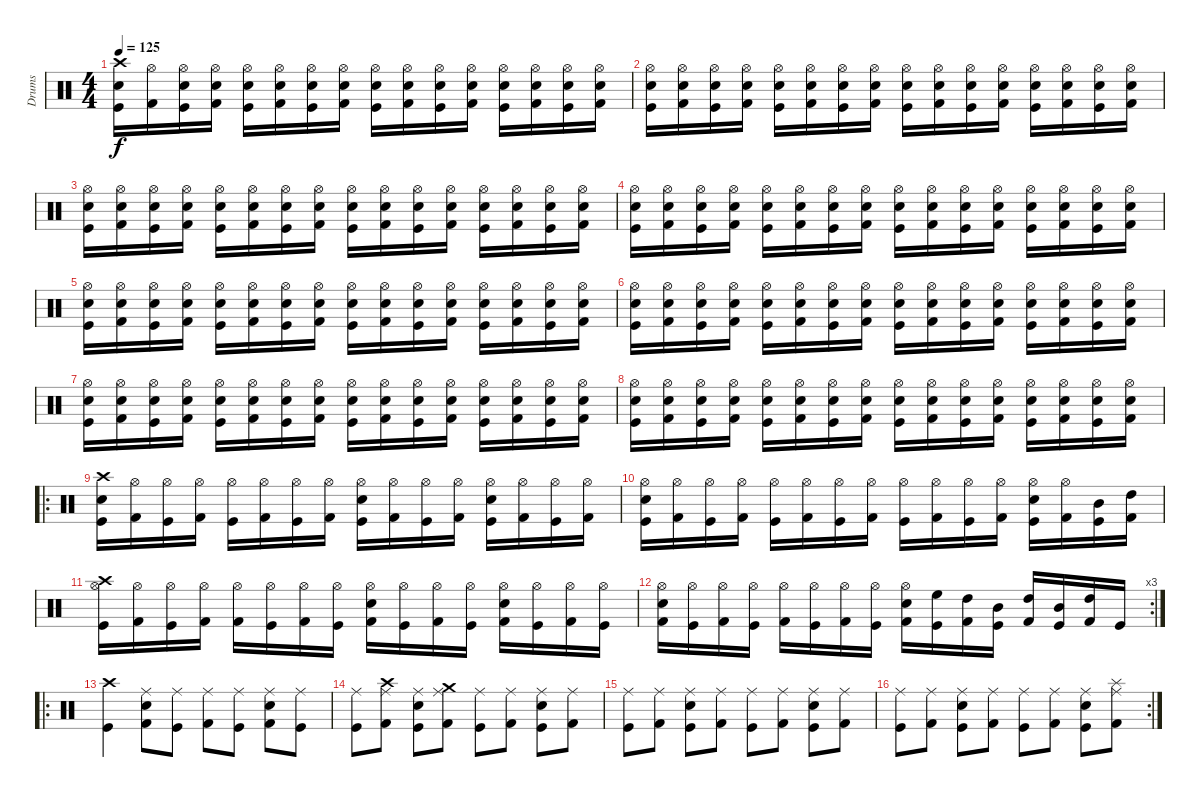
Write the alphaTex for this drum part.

\track ("Drums" "Drums") {instrument percussion}
\staff {score}
\articulation defaults
\ts (4 4)
\tempo 125
\clef neutral
\ks c
("Kick (hit)" "Crash high (hit)" "Electric Snare (hit)").16{dy f} ("Kick (hit) 2" "Hi-Hat (open)").16 ("Kick (hit)" "Hi-Hat (open)" "Electric Snare (hit)").16 ("Kick (hit) 2" "Hi-Hat (open)" "Electric Snare (hit)").16 ("Kick (hit)" "Hi-Hat (open)" "Electric Snare (hit)").16 ("Kick (hit) 2" "Hi-Hat (open)" "Electric Snare (hit)").16 ("Kick (hit)" "Hi-Hat (open)" "Electric Snare (hit)").16 ("Kick (hit) 2" "Hi-Hat (open)" "Electric Snare (hit)").16 ("Kick (hit)" "Hi-Hat (open)" "Electric Snare (hit)").16 ("Kick (hit) 2" "Hi-Hat (open)" "Electric Snare (hit)").16 ("Kick (hit)" "Hi-Hat (open)" "Electric Snare (hit)").16 ("Kick (hit) 2" "Hi-Hat (open)" "Electric Snare (hit)").16 ("Kick (hit)" "Hi-Hat (open)" "Electric Snare (hit)").16 ("Kick (hit) 2" "Hi-Hat (open)" "Electric Snare (hit)").16 ("Kick (hit)" "Hi-Hat (open)" "Electric Snare (hit)").16 ("Kick (hit) 2" "Hi-Hat (open)" "Electric Snare (hit)").16 |
("Kick (hit)" "Hi-Hat (open)" "Electric Snare (hit)").16 ("Kick (hit) 2" "Hi-Hat (open)" "Electric Snare (hit)").16 ("Kick (hit)" "Hi-Hat (open)" "Electric Snare (hit)").16 ("Kick (hit) 2" "Hi-Hat (open)" "Electric Snare (hit)").16 ("Kick (hit)" "Hi-Hat (open)" "Electric Snare (hit)").16 ("Kick (hit) 2" "Hi-Hat (open)" "Electric Snare (hit)").16 ("Kick (hit)" "Hi-Hat (open)" "Electric Snare (hit)").16 ("Kick (hit) 2" "Hi-Hat (open)" "Electric Snare (hit)").16 ("Kick (hit)" "Hi-Hat (open)" "Electric Snare (hit)").16 ("Kick (hit) 2" "Hi-Hat (open)" "Electric Snare (hit)").16 ("Kick (hit)" "Hi-Hat (open)" "Electric Snare (hit)").16 ("Kick (hit) 2" "Hi-Hat (open)" "Electric Snare (hit)").16 ("Kick (hit)" "Hi-Hat (open)" "Electric Snare (hit)").16 ("Kick (hit) 2" "Hi-Hat (open)" "Electric Snare (hit)").16 ("Kick (hit)" "Hi-Hat (open)" "Electric Snare (hit)").16 ("Kick (hit) 2" "Hi-Hat (open)" "Electric Snare (hit)").16 |
("Kick (hit)" "Hi-Hat (open)" "Electric Snare (hit)").16 ("Kick (hit) 2" "Hi-Hat (open)" "Electric Snare (hit)").16 ("Kick (hit)" "Hi-Hat (open)" "Electric Snare (hit)").16 ("Kick (hit) 2" "Hi-Hat (open)" "Electric Snare (hit)").16 ("Kick (hit)" "Hi-Hat (open)" "Electric Snare (hit)").16 ("Kick (hit) 2" "Hi-Hat (open)" "Electric Snare (hit)").16 ("Kick (hit)" "Hi-Hat (open)" "Electric Snare (hit)").16 ("Kick (hit) 2" "Hi-Hat (open)" "Electric Snare (hit)").16 ("Kick (hit)" "Hi-Hat (open)" "Electric Snare (hit)").16 ("Kick (hit) 2" "Hi-Hat (open)" "Electric Snare (hit)").16 ("Kick (hit)" "Hi-Hat (open)" "Electric Snare (hit)").16 ("Kick (hit) 2" "Hi-Hat (open)" "Electric Snare (hit)").16 ("Kick (hit)" "Hi-Hat (open)" "Electric Snare (hit)").16 ("Kick (hit) 2" "Hi-Hat (open)" "Electric Snare (hit)").16 ("Kick (hit)" "Hi-Hat (open)" "Electric Snare (hit)").16 ("Kick (hit) 2" "Hi-Hat (open)" "Electric Snare (hit)").16 |
("Kick (hit)" "Hi-Hat (open)" "Electric Snare (hit)").16 ("Kick (hit) 2" "Hi-Hat (open)" "Electric Snare (hit)").16 ("Kick (hit)" "Hi-Hat (open)" "Electric Snare (hit)").16 ("Kick (hit) 2" "Hi-Hat (open)" "Electric Snare (hit)").16 ("Kick (hit)" "Hi-Hat (open)" "Electric Snare (hit)").16 ("Kick (hit) 2" "Hi-Hat (open)" "Electric Snare (hit)").16 ("Kick (hit)" "Hi-Hat (open)" "Electric Snare (hit)").16 ("Kick (hit) 2" "Hi-Hat (open)" "Electric Snare (hit)").16 ("Kick (hit)" "Hi-Hat (open)" "Electric Snare (hit)").16 ("Kick (hit) 2" "Hi-Hat (open)" "Electric Snare (hit)").16 ("Kick (hit)" "Hi-Hat (open)" "Electric Snare (hit)").16 ("Kick (hit) 2" "Hi-Hat (open)" "Electric Snare (hit)").16 ("Kick (hit)" "Hi-Hat (open)" "Electric Snare (hit)").16 ("Kick (hit) 2" "Hi-Hat (open)" "Electric Snare (hit)").16 ("Kick (hit)" "Hi-Hat (open)" "Electric Snare (hit)").16 ("Kick (hit) 2" "Hi-Hat (open)" "Electric Snare (hit)").16 |
("Kick (hit)" "Hi-Hat (open)" "Electric Snare (hit)").16 ("Kick (hit) 2" "Hi-Hat (open)" "Electric Snare (hit)").16 ("Kick (hit)" "Hi-Hat (open)" "Electric Snare (hit)").16 ("Kick (hit) 2" "Hi-Hat (open)" "Electric Snare (hit)").16 ("Kick (hit)" "Hi-Hat (open)" "Electric Snare (hit)").16 ("Kick (hit) 2" "Hi-Hat (open)" "Electric Snare (hit)").16 ("Kick (hit)" "Hi-Hat (open)" "Electric Snare (hit)").16 ("Kick (hit) 2" "Hi-Hat (open)" "Electric Snare (hit)").16 ("Kick (hit)" "Hi-Hat (open)" "Electric Snare (hit)").16 ("Kick (hit) 2" "Hi-Hat (open)" "Electric Snare (hit)").16 ("Kick (hit)" "Hi-Hat (open)" "Electric Snare (hit)").16 ("Kick (hit) 2" "Hi-Hat (open)" "Electric Snare (hit)").16 ("Kick (hit)" "Hi-Hat (open)" "Electric Snare (hit)").16 ("Kick (hit) 2" "Hi-Hat (open)" "Electric Snare (hit)").16 ("Kick (hit)" "Hi-Hat (open)" "Electric Snare (hit)").16 ("Kick (hit) 2" "Hi-Hat (open)" "Electric Snare (hit)").16 |
("Kick (hit)" "Hi-Hat (open)" "Electric Snare (hit)").16 ("Kick (hit) 2" "Hi-Hat (open)" "Electric Snare (hit)").16 ("Kick (hit)" "Hi-Hat (open)" "Electric Snare (hit)").16 ("Kick (hit) 2" "Hi-Hat (open)" "Electric Snare (hit)").16 ("Kick (hit)" "Hi-Hat (open)" "Electric Snare (hit)").16 ("Kick (hit) 2" "Hi-Hat (open)" "Electric Snare (hit)").16 ("Kick (hit)" "Hi-Hat (open)" "Electric Snare (hit)").16 ("Kick (hit) 2" "Hi-Hat (open)" "Electric Snare (hit)").16 ("Kick (hit)" "Hi-Hat (open)" "Electric Snare (hit)").16 ("Kick (hit) 2" "Hi-Hat (open)" "Electric Snare (hit)").16 ("Kick (hit)" "Hi-Hat (open)" "Electric Snare (hit)").16 ("Kick (hit) 2" "Hi-Hat (open)" "Electric Snare (hit)").16 ("Kick (hit)" "Hi-Hat (open)" "Electric Snare (hit)").16 ("Kick (hit) 2" "Hi-Hat (open)" "Electric Snare (hit)").16 ("Kick (hit)" "Hi-Hat (open)" "Electric Snare (hit)").16 ("Kick (hit) 2" "Hi-Hat (open)" "Electric Snare (hit)").16 |
("Kick (hit)" "Hi-Hat (open)" "Electric Snare (hit)").16 ("Kick (hit) 2" "Hi-Hat (open)" "Electric Snare (hit)").16 ("Kick (hit)" "Hi-Hat (open)" "Electric Snare (hit)").16 ("Kick (hit) 2" "Hi-Hat (open)" "Electric Snare (hit)").16 ("Kick (hit)" "Hi-Hat (open)" "Electric Snare (hit)").16 ("Kick (hit) 2" "Hi-Hat (open)" "Electric Snare (hit)").16 ("Kick (hit)" "Hi-Hat (open)" "Electric Snare (hit)").16 ("Kick (hit) 2" "Hi-Hat (open)" "Electric Snare (hit)").16 ("Kick (hit)" "Hi-Hat (open)" "Electric Snare (hit)").16 ("Kick (hit) 2" "Hi-Hat (open)" "Electric Snare (hit)").16 ("Kick (hit)" "Hi-Hat (open)" "Electric Snare (hit)").16 ("Kick (hit) 2" "Hi-Hat (open)" "Electric Snare (hit)").16 ("Kick (hit)" "Hi-Hat (open)" "Electric Snare (hit)").16 ("Kick (hit) 2" "Hi-Hat (open)" "Electric Snare (hit)").16 ("Kick (hit)" "Hi-Hat (open)" "Electric Snare (hit)").16 ("Kick (hit) 2" "Hi-Hat (open)" "Electric Snare (hit)").16 |
("Kick (hit)" "Hi-Hat (open)" "Electric Snare (hit)").16 ("Kick (hit) 2" "Hi-Hat (open)" "Electric Snare (hit)").16 ("Kick (hit)" "Hi-Hat (open)" "Electric Snare (hit)").16 ("Kick (hit) 2" "Hi-Hat (open)" "Electric Snare (hit)").16 ("Kick (hit)" "Hi-Hat (open)" "Electric Snare (hit)").16 ("Kick (hit) 2" "Hi-Hat (open)" "Electric Snare (hit)").16 ("Kick (hit)" "Hi-Hat (open)" "Electric Snare (hit)").16 ("Kick (hit) 2" "Hi-Hat (open)" "Electric Snare (hit)").16 ("Kick (hit)" "Hi-Hat (open)" "Electric Snare (hit)").16 ("Kick (hit) 2" "Hi-Hat (open)" "Electric Snare (hit)").16 ("Kick (hit)" "Hi-Hat (open)" "Electric Snare (hit)").16 ("Kick (hit) 2" "Hi-Hat (open)" "Electric Snare (hit)").16 ("Kick (hit)" "Hi-Hat (open)" "Electric Snare (hit)").16 ("Kick (hit) 2" "Hi-Hat (open)" "Electric Snare (hit)").16 ("Kick (hit)" "Hi-Hat (open)" "Electric Snare (hit)").16 ("Kick (hit) 2" "Hi-Hat (open)" "Electric Snare (hit)").16 |
\ro
("Kick (hit)" "Crash high (hit)" "Electric Snare (hit)").16 ("Kick (hit) 2" "Hi-Hat (open)").16 ("Kick (hit)" "Hi-Hat (open)").16 ("Kick (hit) 2" "Hi-Hat (open)").16 ("Kick (hit)" "Hi-Hat (open)").16 ("Kick (hit) 2" "Hi-Hat (open)").16 ("Kick (hit)" "Hi-Hat (open)").16 ("Kick (hit) 2" "Hi-Hat (open)").16 ("Kick (hit)" "Hi-Hat (open)" "Electric Snare (hit)").16 ("Kick (hit) 2" "Hi-Hat (open)").16 ("Kick (hit)" "Hi-Hat (open)").16 ("Kick (hit) 2" "Hi-Hat (open)").16 ("Kick (hit)" "Hi-Hat (open)" "Electric Snare (hit)").16 ("Kick (hit) 2" "Hi-Hat (open)").16 ("Kick (hit)" "Hi-Hat (open)").16 ("Kick (hit) 2" "Hi-Hat (open)").16 |
("Kick (hit)" "Hi-Hat (open)" "Electric Snare (hit)").16 ("Kick (hit) 2" "Hi-Hat (open)").16 ("Kick (hit)" "Hi-Hat (open)").16 ("Kick (hit) 2" "Hi-Hat (open)").16 ("Kick (hit)" "Hi-Hat (open)").16 ("Kick (hit) 2" "Hi-Hat (open)").16 ("Kick (hit)" "Hi-Hat (open)").16 ("Kick (hit) 2" "Hi-Hat (open)").16 ("Kick (hit)" "Hi-Hat (open)").16 ("Kick (hit) 2" "Hi-Hat (open)").16 ("Kick (hit)" "Hi-Hat (open)").16 ("Kick (hit) 2" "Hi-Hat (open)").16 ("Kick (hit)" "Hi-Hat (open)" "Electric Snare (hit)").16 ("Kick (hit) 2" "Hi-Hat (open)").16 ("Kick (hit)" "Mid Tom (hit)").16 ("Kick (hit) 2" "High Tom (hit)").16 |
("Kick (hit)" "Hi-Hat (open)" "Crash high (hit)").16 ("Kick (hit) 2" "Hi-Hat (open)").16 ("Kick (hit)" "Hi-Hat (open)").16 ("Kick (hit) 2" "Hi-Hat (open)").16 ("Kick (hit) 2" "Hi-Hat (open)").16 ("Kick (hit)" "Hi-Hat (open)").16 ("Kick (hit) 2" "Hi-Hat (open)").16 ("Kick (hit)" "Hi-Hat (open)").16 ("Kick (hit) 2" "Hi-Hat (open)" "Electric Snare (hit)").16 ("Kick (hit)" "Hi-Hat (open)").16 ("Kick (hit) 2" "Hi-Hat (open)").16 ("Kick (hit)" "Hi-Hat (open)").16 ("Kick (hit) 2" "Hi-Hat (open)" "Electric Snare (hit)").16 ("Kick (hit)" "Hi-Hat (open)").16 ("Kick (hit) 2" "Hi-Hat (open)").16 ("Kick (hit)" "Hi-Hat (open)").16 |
\rc 3
("Kick (hit) 2" "Hi-Hat (open)" "Electric Snare (hit)").16 ("Kick (hit)" "Hi-Hat (open)").16 ("Kick (hit) 2" "Hi-Hat (open)").16 ("Kick (hit)" "Hi-Hat (open)").16 ("Kick (hit) 2" "Hi-Hat (open)").16 ("Kick (hit)" "Hi-Hat (open)").16 ("Kick (hit) 2" "Hi-Hat (open)").16 ("Kick (hit)" "Hi-Hat (open)").16 ("Kick (hit) 2" "Hi-Hat (open)" "Electric Snare (hit)").16 ("Kick (hit)" "High Floor Tom (hit)").16 ("Kick (hit) 2" "High Tom (hit)").16 ("Kick (hit)" "Mid Tom (hit)").16 ("Kick (hit) 2" "High Tom (hit)").16 ("Kick (hit)" "Mid Tom (hit)").16 ("Kick (hit) 2" "High Tom (hit)").16 "Kick (hit)".16 |
\ro
("Kick (hit)" "Crash high (hit)").4 ("Kick (hit) 2" "Ride (middle)" "Electric Snare (hit)").8 ("Kick (hit)" "Ride (middle)").8 ("Kick (hit) 2" "Ride (middle)").8 ("Kick (hit)" "Ride (middle)").8 ("Kick (hit) 2" "Ride (middle)" "Electric Snare (hit)").8 ("Kick (hit)" "Ride (middle)").8 |
("Kick (hit)" "Ride (middle)").8 ("Kick (hit) 2" "Ride (middle)" "Crash high (hit)").8 ("Kick (hit)" "Ride (middle)" "Electric Snare (hit)").8 ("Kick (hit) 2" "Ride (middle)" "Crash medium (hit)").8 ("Kick (hit)" "Ride (middle)").8 ("Kick (hit) 2" "Ride (middle)").8 ("Kick (hit)" "Ride (middle)" "Electric Snare (hit)").8 ("Kick (hit) 2" "Ride (middle)").8 |
("Kick (hit)" "Ride (middle)").8 ("Kick (hit) 2" "Ride (middle)").8 ("Kick (hit)" "Ride (middle)" "Electric Snare (hit)").8 ("Kick (hit) 2" "Ride (middle)").8 ("Kick (hit)" "Ride (middle)").8 ("Kick (hit) 2" "Ride (middle)").8 ("Kick (hit)" "Ride (middle)" "Electric Snare (hit)").8 ("Kick (hit) 2" "Ride (middle)").8 |
\rc 2
("Kick (hit)" "Ride (middle)").8 ("Kick (hit) 2" "Ride (middle)").8 ("Kick (hit)" "Ride (middle)" "Electric Snare (hit)").8 ("Kick (hit) 2" "Ride (middle)").8 ("Kick (hit)" "Ride (middle)").8 ("Kick (hit) 2" "Ride (middle)").8 ("Kick (hit)" "Ride (middle)" "Electric Snare (hit)").8 ("Kick (hit) 2" "Ride (middle)" "Splash (hit)").8
